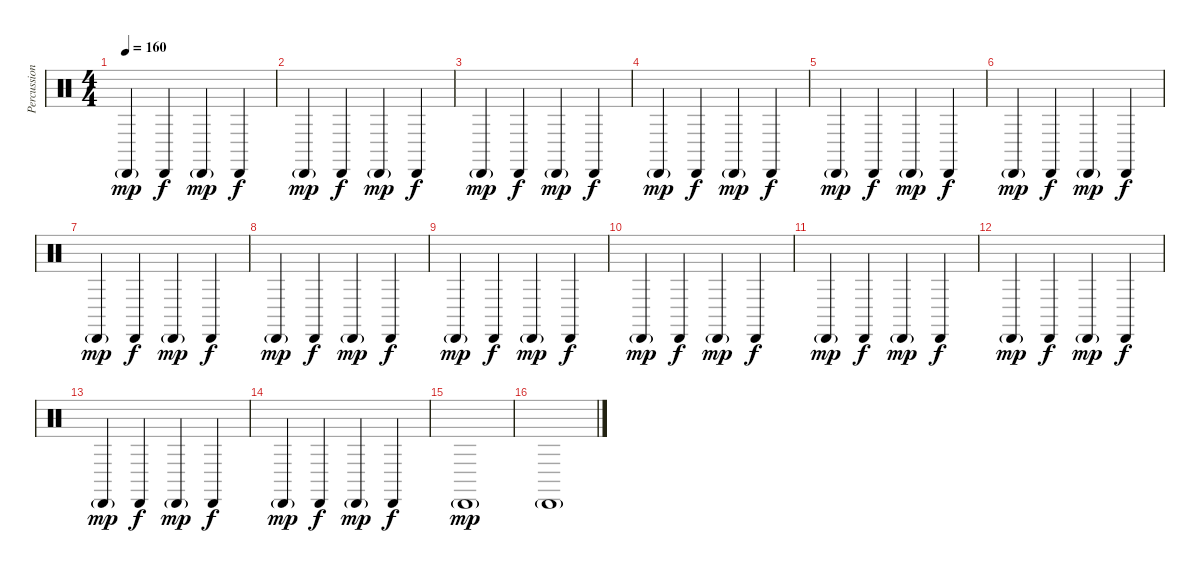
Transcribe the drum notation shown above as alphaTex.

\track ("Percussion" "Percussion") {instrument percussion}
\staff {score}
\articulation defaults
\ts (4 4)
\tempo 160
\clef neutral
\ks c "Cabasa (hit)"{g}.4{dy mp} "Cabasa (hit)".4{dy f} "Cabasa (hit)"{g}.4{dy mp} "Cabasa (hit)".4{dy f}
|
"Cabasa (hit)"{g}.4{dy mp} "Cabasa (hit)".4{dy f} "Cabasa (hit)"{g}.4{dy mp} "Cabasa (hit)".4{dy f} |
"Cabasa (hit)"{g}.4{dy mp} "Cabasa (hit)".4{dy f} "Cabasa (hit)"{g}.4{dy mp} "Cabasa (hit)".4{dy f} |
"Cabasa (hit)"{g}.4{dy mp} "Cabasa (hit)".4{dy f} "Cabasa (hit)"{g}.4{dy mp} "Cabasa (hit)".4{dy f} |
"Cabasa (hit)"{g}.4{dy mp} "Cabasa (hit)".4{dy f} "Cabasa (hit)"{g}.4{dy mp} "Cabasa (hit)".4{dy f} |
"Cabasa (hit)"{g}.4{dy mp} "Cabasa (hit)".4{dy f} "Cabasa (hit)"{g}.4{dy mp} "Cabasa (hit)".4{dy f} |
"Cabasa (hit)"{g}.4{dy mp} "Cabasa (hit)".4{dy f} "Cabasa (hit)"{g}.4{dy mp} "Cabasa (hit)".4{dy f} |
"Cabasa (hit)"{g}.4{dy mp} "Cabasa (hit)".4{dy f} "Cabasa (hit)"{g}.4{dy mp} "Cabasa (hit)".4{dy f} |
"Cabasa (hit)"{g}.4{dy mp} "Cabasa (hit)".4{dy f} "Cabasa (hit)"{g}.4{dy mp} "Cabasa (hit)".4{dy f} |
"Cabasa (hit)"{g}.4{dy mp} "Cabasa (hit)".4{dy f} "Cabasa (hit)"{g}.4{dy mp} "Cabasa (hit)".4{dy f} |
"Cabasa (hit)"{g}.4{dy mp} "Cabasa (hit)".4{dy f} "Cabasa (hit)"{g}.4{dy mp} "Cabasa (hit)".4{dy f} |
"Cabasa (hit)"{g}.4{dy mp} "Cabasa (hit)".4{dy f} "Cabasa (hit)"{g}.4{dy mp} "Cabasa (hit)".4{dy f} |
"Cabasa (hit)"{g}.4{dy mp} "Cabasa (hit)".4{dy f} "Cabasa (hit)"{g}.4{dy mp} "Cabasa (hit)".4{dy f} |
"Cabasa (hit)"{g}.4{dy mp} "Cabasa (hit)".4{dy f} "Cabasa (hit)"{g}.4{dy mp} "Cabasa (hit)".4{dy f} |
"Cabasa (hit)"{g}.1{dy mp} |
"Cabasa (hit)"{g}.1
